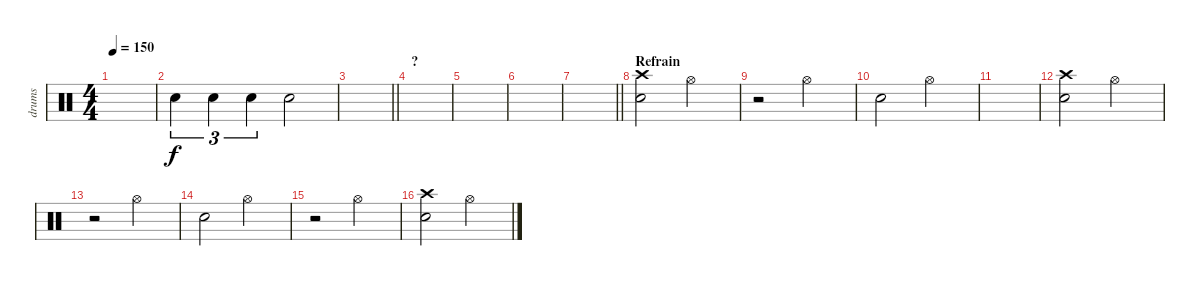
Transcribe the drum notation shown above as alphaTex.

\track ("drums" "drums") {instrument percussion}
\staff {score}
\articulation defaults
\ts (4 4)
\tempo 150
\clef neutral
\ks c
|
"Snare (hit) 2".4{tu (3 2)} "Snare (hit) 2".4{tu (3 2)} "Snare (hit) 2".4{tu (3 2)} "Snare (hit) 2".2 |
\barLineRight lightlight
|
\section ("" "?")
|
|
|
\barLineRight lightlight
|
\section ("" "Refrain")
("Snare (hit) 2" "Crash high (hit)").2 "Hi-Hat (open)".2 |
r.2 "Hi-Hat (open)".2 |
"Snare (hit) 2".2 "Hi-Hat (open)".2 |
|
("Snare (hit) 2" "Crash high (hit)").2 "Hi-Hat (open)".2 |
r.2 "Hi-Hat (open)".2 |
"Snare (hit) 2".2 "Hi-Hat (open)".2 |
r.2 "Hi-Hat (open)".2 |
("Snare (hit) 2" "Crash high (hit)").2 "Hi-Hat (open)".2
